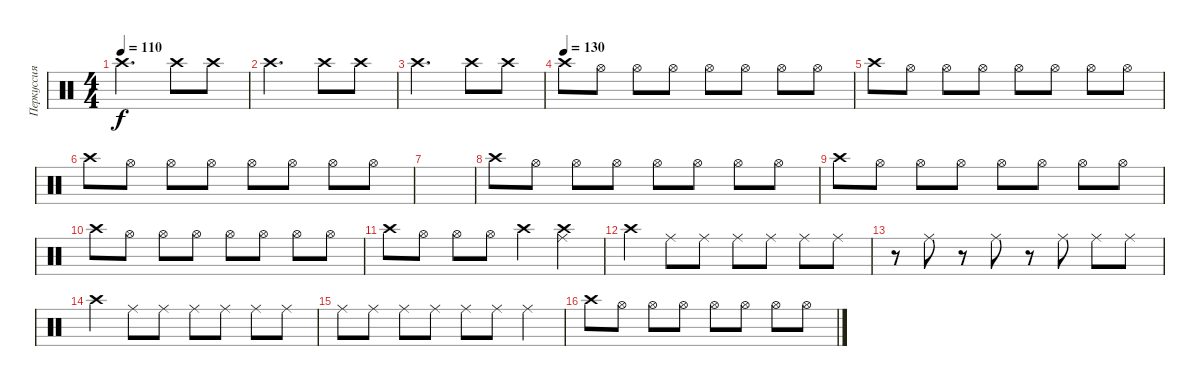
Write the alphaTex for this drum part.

\track ("Перкуссия" "Перкуссия") {instrument percussion}
\staff {score}
\articulation defaults
\ts (4 4)
\tempo 110
\clef neutral
\ks c "Crash high (hit)".2{d dy f} "Crash high (hit)".8 "Crash high (hit)".8
|
"Crash high (hit)".2{d} "Crash high (hit)".8 "Crash high (hit)".8 |
"Crash high (hit)".2{d} "Crash high (hit)".8 "Crash high (hit)".8 |
\tempo (130)
"Crash high (hit)".8 "Hi-Hat (open)".8 "Hi-Hat (open)".8 "Hi-Hat (open)".8 "Hi-Hat (open)".8 "Hi-Hat (open)".8 "Hi-Hat (open)".8 "Hi-Hat (open)".8 |
"Crash high (hit)".8 "Hi-Hat (open)".8 "Hi-Hat (open)".8 "Hi-Hat (open)".8 "Hi-Hat (open)".8 "Hi-Hat (open)".8 "Hi-Hat (open)".8 "Hi-Hat (open)".8 |
"Crash high (hit)".8 "Hi-Hat (open)".8 "Hi-Hat (open)".8 "Hi-Hat (open)".8 "Hi-Hat (open)".8 "Hi-Hat (open)".8 "Hi-Hat (open)".8 "Hi-Hat (open)".8 |
|
"Crash high (hit)".8 "Hi-Hat (open)".8 "Hi-Hat (open)".8 "Hi-Hat (open)".8 "Hi-Hat (open)".8 "Hi-Hat (open)".8 "Hi-Hat (open)".8 "Hi-Hat (open)".8 |
"Crash high (hit)".8 "Hi-Hat (open)".8 "Hi-Hat (open)".8 "Hi-Hat (open)".8 "Hi-Hat (open)".8 "Hi-Hat (open)".8 "Hi-Hat (open)".8 "Hi-Hat (open)".8 |
"Crash high (hit)".8 "Hi-Hat (open)".8 "Hi-Hat (open)".8 "Hi-Hat (open)".8 "Hi-Hat (open)".8 "Hi-Hat (open)".8 "Hi-Hat (open)".8 "Hi-Hat (open)".8 |
"Crash high (hit)".8 "Hi-Hat (open)".8 "Hi-Hat (open)".8 "Hi-Hat (open)".8 "Crash high (hit)".4 ("Ride (middle)" "Crash high (hit)").4 |
"Crash high (hit)".4 "Ride (middle)".8 "Ride (middle)".8 "Ride (middle)".8 "Ride (middle)".8 "Ride (middle)".8 "Ride (middle)".8 |
r.8 "Ride (middle)".8 r.8 "Ride (middle)".8 r.8 "Ride (middle)".8 "Ride (middle)".8 "Ride (middle)".8 |
"Crash high (hit)".4 "Ride (middle)".8 "Ride (middle)".8 "Ride (middle)".8 "Ride (middle)".8 "Ride (middle)".8 "Ride (middle)".8 |
"Ride (middle)".8 "Ride (middle)".8 "Ride (middle)".8 "Ride (middle)".8 "Ride (middle)".8 "Ride (middle)".8 "Ride (middle)".4 |
"Crash high (hit)".8 "Hi-Hat (open)".8 "Hi-Hat (open)".8 "Hi-Hat (open)".8 "Hi-Hat (open)".8 "Hi-Hat (open)".8 "Hi-Hat (open)".8 "Hi-Hat (open)".8
